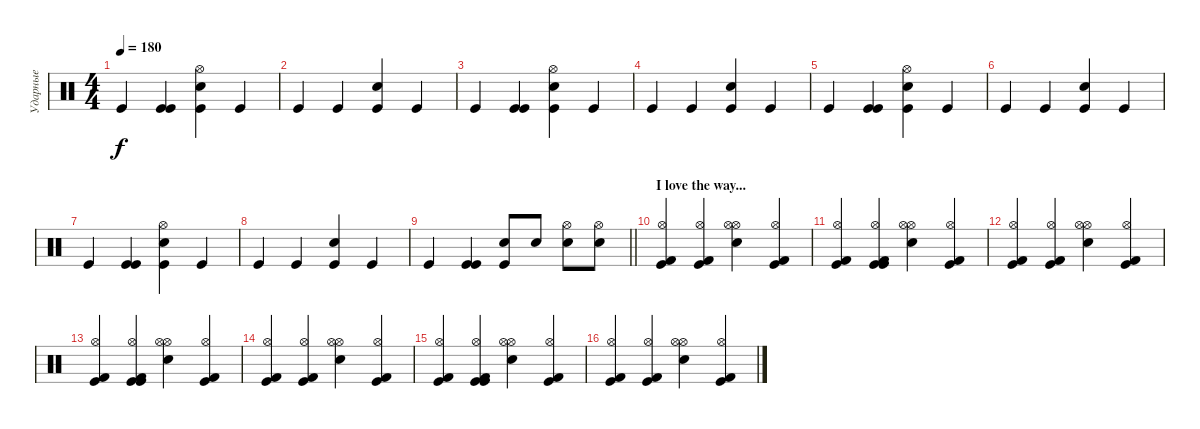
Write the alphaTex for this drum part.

\track ("Ударные" "Ударные") {instrument percussion}
\staff {score}
\articulation defaults
\ts (4 4)
\tempo 180
\clef neutral
\ks c "Kick (hit)".4{dy f}
("Kick (hit)" "Kick (hit)").4 ("Kick (hit)" "Snare (hit) 2" "Hi-Hat (open)").4 "Kick (hit)".4 |
"Kick (hit)".4 "Kick (hit)".4 ("Snare (hit) 2" "Kick (hit)").4 "Kick (hit)".4 |
"Kick (hit)".4 ("Kick (hit)" "Kick (hit)").4 ("Kick (hit)" "Snare (hit) 2" "Hi-Hat (open)").4 "Kick (hit)".4 |
"Kick (hit)".4 "Kick (hit)".4 ("Snare (hit) 2" "Kick (hit)").4 "Kick (hit)".4 |
"Kick (hit)".4 ("Kick (hit)" "Kick (hit)").4 ("Kick (hit)" "Snare (hit) 2" "Hi-Hat (open)").4 "Kick (hit)".4 |
"Kick (hit)".4 "Kick (hit)".4 ("Snare (hit) 2" "Kick (hit)").4 "Kick (hit)".4 |
"Kick (hit)".4 ("Kick (hit)" "Kick (hit)").4 ("Kick (hit)" "Snare (hit) 2" "Hi-Hat (open)").4 "Kick (hit)".4 |
"Kick (hit)".4 "Kick (hit)".4 ("Snare (hit) 2" "Kick (hit)").4 "Kick (hit)".4 |
\barLineRight lightlight "Kick (hit)".4
("Kick (hit)" "Kick (hit)").4 ("Kick (hit)" "Snare (hit) 2").8 "Snare (hit) 2".8 ("Snare (hit) 2" "Hi-Hat (open)").8 ("Snare (hit) 2" "Hi-Hat (open)").8 |
\section ("" "I love the way...")
("Hi-Hat (open)" "Kick (hit) 2" "Kick (hit)").4 ("Hi-Hat (open)" "Kick (hit) 2" "Kick (hit)").4 ("Electric Snare (hit)" "Hi-Hat (open)" "Hi-Hat (open)").4 ("Hi-Hat (open)" "Kick (hit) 2" "Kick (hit)").4 |
("Hi-Hat (open)" "Kick (hit) 2" "Kick (hit)").4 ("Hi-Hat (open)" "Kick (hit) 2" "Kick (hit)" "Kick (hit)").4 ("Electric Snare (hit)" "Hi-Hat (open)" "Hi-Hat (open)").4 ("Hi-Hat (open)" "Kick (hit) 2" "Kick (hit)").4 |
("Hi-Hat (open)" "Kick (hit) 2" "Kick (hit)").4 ("Hi-Hat (open)" "Kick (hit) 2" "Kick (hit)").4 ("Electric Snare (hit)" "Hi-Hat (open)" "Hi-Hat (open)").4 ("Hi-Hat (open)" "Kick (hit) 2" "Kick (hit)").4 |
("Hi-Hat (open)" "Kick (hit) 2" "Kick (hit)").4 ("Hi-Hat (open)" "Kick (hit) 2" "Kick (hit)" "Kick (hit)").4 ("Electric Snare (hit)" "Hi-Hat (open)" "Hi-Hat (open)").4 ("Hi-Hat (open)" "Kick (hit) 2" "Kick (hit)").4 |
("Hi-Hat (open)" "Kick (hit) 2" "Kick (hit)").4 ("Hi-Hat (open)" "Kick (hit) 2" "Kick (hit)").4 ("Electric Snare (hit)" "Hi-Hat (open)" "Hi-Hat (open)").4 ("Hi-Hat (open)" "Kick (hit) 2" "Kick (hit)").4 |
("Hi-Hat (open)" "Kick (hit) 2" "Kick (hit)").4 ("Hi-Hat (open)" "Kick (hit) 2" "Kick (hit)" "Kick (hit)").4 ("Electric Snare (hit)" "Hi-Hat (open)" "Hi-Hat (open)").4 ("Hi-Hat (open)" "Kick (hit) 2" "Kick (hit)").4 |
("Hi-Hat (open)" "Kick (hit) 2" "Kick (hit)").4 ("Hi-Hat (open)" "Kick (hit) 2" "Kick (hit)").4 ("Electric Snare (hit)" "Hi-Hat (open)" "Hi-Hat (open)").4 ("Hi-Hat (open)" "Kick (hit) 2" "Kick (hit)").4
